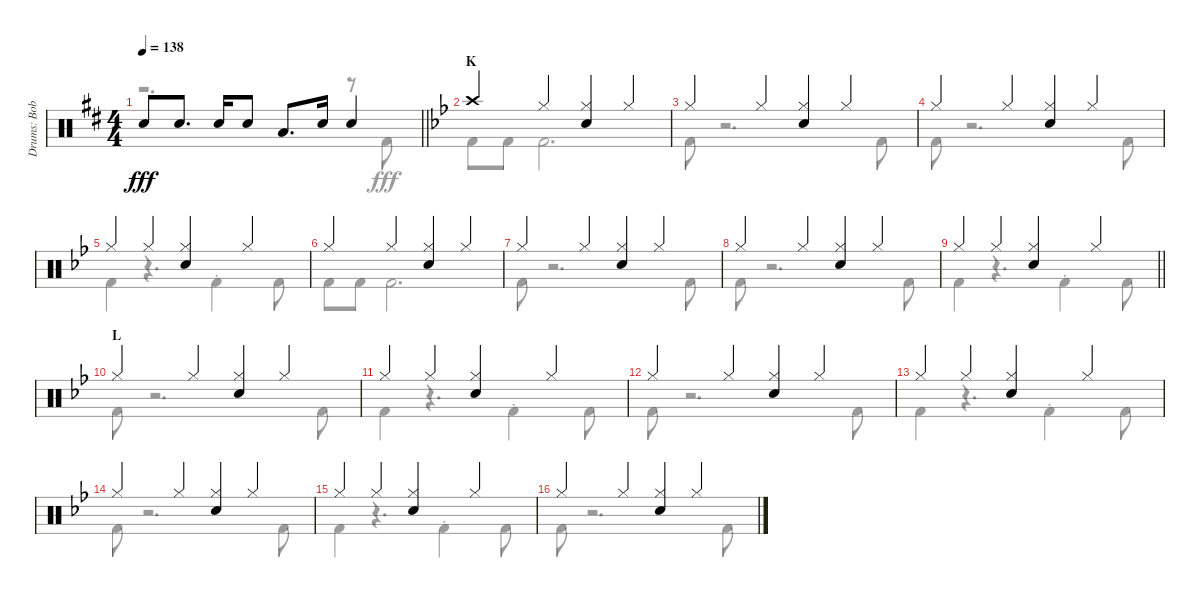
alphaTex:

\track ("Drums: Bobby" "Drums: Bob") {instrument percussion}
\staff {score}
\articulation defaults
\voice
\ts (4 4)
\tempo 138
\clef neutral
\barLineRight lightlight
\ks d "Snare (hit) 2".8{dy fff} "Snare (hit) 2".8{d} "Snare (hit) 2".16 "Snare (hit) 2".8 "Low Tom (hit)".8{d} "Snare (hit) 2".16 "Snare (hit) 2".4
|
\section ("" "K")
\ks bb "Crash high (hit)".4 "Hi-Hat (closed)".4
("Hi-Hat (closed)" "Snare (hit) 2").4 "Hi-Hat (closed)".4 |
"Hi-Hat (closed)".4 "Hi-Hat (closed)".4 ("Hi-Hat (closed)" "Snare (hit) 2").4 "Hi-Hat (closed)".4 |
"Hi-Hat (closed)".4 "Hi-Hat (closed)".4 ("Hi-Hat (closed)" "Snare (hit) 2").4 "Hi-Hat (closed)".4 |
"Hi-Hat (closed)".4 "Hi-Hat (closed)".4 ("Hi-Hat (closed)" "Snare (hit) 2").4 "Hi-Hat (closed)".4 |
"Hi-Hat (closed)".4 "Hi-Hat (closed)".4 ("Hi-Hat (closed)" "Snare (hit) 2").4 "Hi-Hat (closed)".4 |
"Hi-Hat (closed)".4 "Hi-Hat (closed)".4 ("Hi-Hat (closed)" "Snare (hit) 2").4 "Hi-Hat (closed)".4 |
"Hi-Hat (closed)".4 "Hi-Hat (closed)".4 ("Hi-Hat (closed)" "Snare (hit) 2").4 "Hi-Hat (closed)".4 |
\barLineRight lightlight "Hi-Hat (closed)".4 "Hi-Hat (closed)".4
("Hi-Hat (closed)" "Snare (hit) 2").4 "Hi-Hat (closed)".4 |
\section ("" "L")
"Hi-Hat (closed)".4 "Hi-Hat (closed)".4 ("Hi-Hat (closed)" "Snare (hit) 2").4 "Hi-Hat (closed)".4 |
"Hi-Hat (closed)".4 "Hi-Hat (closed)".4 ("Hi-Hat (closed)" "Snare (hit) 2").4 "Hi-Hat (closed)".4 |
"Hi-Hat (closed)".4 "Hi-Hat (closed)".4 ("Hi-Hat (closed)" "Snare (hit) 2").4 "Hi-Hat (closed)".4 |
"Hi-Hat (closed)".4 "Hi-Hat (closed)".4 ("Hi-Hat (closed)" "Snare (hit) 2").4 "Hi-Hat (closed)".4 |
"Hi-Hat (closed)".4 "Hi-Hat (closed)".4 ("Hi-Hat (closed)" "Snare (hit) 2").4 "Hi-Hat (closed)".4 |
"Hi-Hat (closed)".4 "Hi-Hat (closed)".4 ("Hi-Hat (closed)" "Snare (hit) 2").4 "Hi-Hat (closed)".4 |
"Hi-Hat (closed)".4 "Hi-Hat (closed)".4 ("Hi-Hat (closed)" "Snare (hit) 2").4 "Hi-Hat (closed)".4
\voice
\clef neutral
\ottava regular
\simile none
\barLineRight lightlight
\ks d
r.2{d dy fff} r.8 "Kick (hit) 2".8 |
\ks bb "Kick (hit) 2".8 "Kick (hit) 2".8 "Kick (hit) 2".2{d}
|
"Kick (hit) 2".8 r.2{d} "Kick (hit) 2".8 |
"Kick (hit) 2".8 r.2{d} "Kick (hit) 2".8 |
"Kick (hit) 2".4 r.4{d} "Kick (hit) 2"{st}.4 "Kick (hit) 2".8 |
"Kick (hit) 2".8 "Kick (hit) 2".8 "Kick (hit) 2".2{d} |
"Kick (hit) 2".8 r.2{d} "Kick (hit) 2".8 |
"Kick (hit) 2".8 r.2{d} "Kick (hit) 2".8 |
\barLineRight lightlight "Kick (hit) 2".4
r.4{d} "Kick (hit) 2"{st}.4 "Kick (hit) 2".8 |
"Kick (hit) 2".8 r.2{d} "Kick (hit) 2".8 |
"Kick (hit) 2".4 r.4{d} "Kick (hit) 2"{st}.4 "Kick (hit) 2".8 |
"Kick (hit) 2".8 r.2{d} "Kick (hit) 2".8 |
"Kick (hit) 2".4 r.4{d} "Kick (hit) 2"{st}.4 "Kick (hit) 2".8 |
"Kick (hit) 2".8 r.2{d} "Kick (hit) 2".8 |
"Kick (hit) 2".4 r.4{d} "Kick (hit) 2"{st}.4 "Kick (hit) 2".8 |
"Kick (hit) 2".8 r.2{d} "Kick (hit) 2".8
